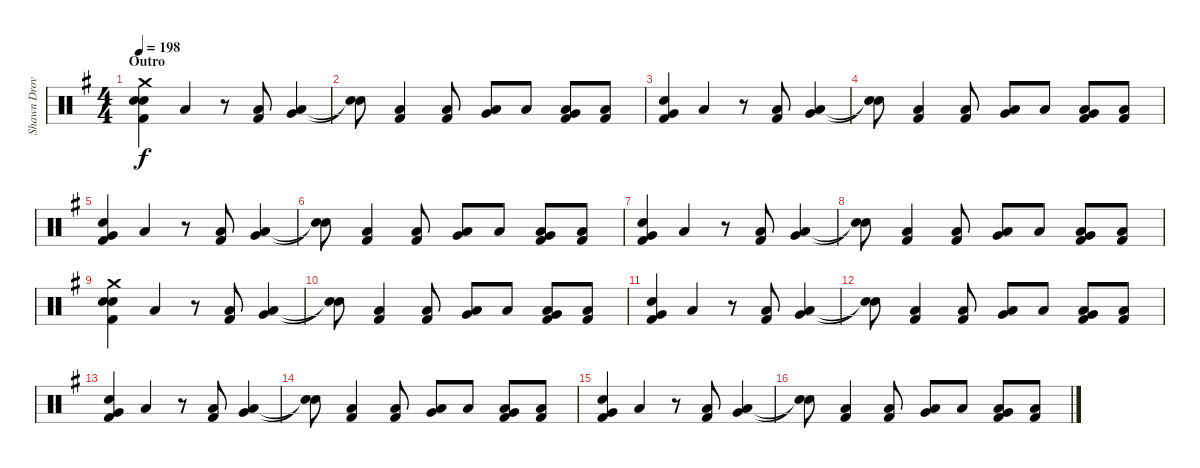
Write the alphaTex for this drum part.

\track ("Shawn Drover" "Shawn Drov") {instrument percussion}
\staff {score}
\articulation defaults
\ts (4 4)
\section ("" "Outro")
\tempo 198
\clef neutral
\ks g
("Crash medium (hit)" "Snare (hit) 2" "Snare (hit) 2" "Kick (hit) 2").4{dy f} "Low Floor Tom (hit)".4 r.8 ("Low Floor Tom (hit)" "Kick (hit) 2").8 ("Low Floor Tom (hit)" "Very Low Tom (hit)").4 |
("Snare (hit)"{t} "Snare (hit)"{t}).8 ("Low Floor Tom (hit)" "Kick (hit) 2").4 ("Low Floor Tom (hit)" "Kick (hit) 2").8 ("Very Low Tom (hit)" "Low Floor Tom (hit)").8 "Low Floor Tom (hit)".8 ("Very Low Tom (hit)" "Low Floor Tom (hit)" "Kick (hit) 2").8 ("Low Tom (hit)" "Kick (hit) 2").8 |
("Snare (hit) 2" "Very Low Tom (hit)" "Kick (hit) 2").4 "Low Floor Tom (hit)".4 r.8 ("Low Floor Tom (hit)" "Kick (hit) 2").8 ("Low Floor Tom (hit)" "Very Low Tom (hit)").4 |
("Snare (hit)"{t} "Snare (hit)"{t}).8 ("Low Floor Tom (hit)" "Kick (hit) 2").4 ("Low Floor Tom (hit)" "Kick (hit) 2").8 ("Very Low Tom (hit)" "Low Floor Tom (hit)").8 "Low Floor Tom (hit)".8 ("Very Low Tom (hit)" "Low Floor Tom (hit)" "Kick (hit) 2").8 ("Low Tom (hit)" "Kick (hit) 2").8 |
("Snare (hit) 2" "Very Low Tom (hit)" "Kick (hit) 2").4 "Low Floor Tom (hit)".4 r.8 ("Low Floor Tom (hit)" "Kick (hit) 2").8 ("Low Floor Tom (hit)" "Very Low Tom (hit)").4 |
("Snare (hit)"{t} "Snare (hit)"{t}).8 ("Low Floor Tom (hit)" "Kick (hit) 2").4 ("Low Floor Tom (hit)" "Kick (hit) 2").8 ("Very Low Tom (hit)" "Low Floor Tom (hit)").8 "Low Floor Tom (hit)".8 ("Very Low Tom (hit)" "Low Floor Tom (hit)" "Kick (hit) 2").8 ("Low Tom (hit)" "Kick (hit) 2").8 |
("Snare (hit) 2" "Very Low Tom (hit)" "Kick (hit) 2").4 "Low Floor Tom (hit)".4 r.8 ("Low Floor Tom (hit)" "Kick (hit) 2").8 ("Low Floor Tom (hit)" "Very Low Tom (hit)").4 |
("Snare (hit)"{t} "Snare (hit)"{t}).8 ("Low Floor Tom (hit)" "Kick (hit) 2").4 ("Low Floor Tom (hit)" "Kick (hit) 2").8 ("Very Low Tom (hit)" "Low Floor Tom (hit)").8 "Low Floor Tom (hit)".8 ("Very Low Tom (hit)" "Low Floor Tom (hit)" "Kick (hit) 2").8 ("Low Tom (hit)" "Kick (hit) 2").8 |
("Crash medium (hit)" "Snare (hit) 2" "Snare (hit) 2" "Kick (hit) 2").4 "Low Floor Tom (hit)".4 r.8 ("Low Floor Tom (hit)" "Kick (hit) 2").8 ("Low Floor Tom (hit)" "Very Low Tom (hit)").4 |
("Snare (hit)"{t} "Snare (hit)"{t}).8 ("Low Floor Tom (hit)" "Kick (hit) 2").4 ("Low Floor Tom (hit)" "Kick (hit) 2").8 ("Very Low Tom (hit)" "Low Floor Tom (hit)").8 "Low Floor Tom (hit)".8 ("Very Low Tom (hit)" "Low Floor Tom (hit)" "Kick (hit) 2").8 ("Low Tom (hit)" "Kick (hit) 2").8 |
("Snare (hit) 2" "Very Low Tom (hit)" "Kick (hit) 2").4 "Low Floor Tom (hit)".4 r.8 ("Low Floor Tom (hit)" "Kick (hit) 2").8 ("Low Floor Tom (hit)" "Very Low Tom (hit)").4 |
("Snare (hit)"{t} "Snare (hit)"{t}).8 ("Low Floor Tom (hit)" "Kick (hit) 2").4 ("Low Floor Tom (hit)" "Kick (hit) 2").8 ("Very Low Tom (hit)" "Low Floor Tom (hit)").8 "Low Floor Tom (hit)".8 ("Very Low Tom (hit)" "Low Floor Tom (hit)" "Kick (hit) 2").8 ("Low Tom (hit)" "Kick (hit) 2").8 |
("Snare (hit) 2" "Very Low Tom (hit)" "Kick (hit) 2").4 "Low Floor Tom (hit)".4 r.8 ("Low Floor Tom (hit)" "Kick (hit) 2").8 ("Low Floor Tom (hit)" "Very Low Tom (hit)").4 |
("Snare (hit)"{t} "Snare (hit)"{t}).8 ("Low Floor Tom (hit)" "Kick (hit) 2").4 ("Low Floor Tom (hit)" "Kick (hit) 2").8 ("Very Low Tom (hit)" "Low Floor Tom (hit)").8 "Low Floor Tom (hit)".8 ("Very Low Tom (hit)" "Low Floor Tom (hit)" "Kick (hit) 2").8 ("Low Tom (hit)" "Kick (hit) 2").8 |
("Snare (hit) 2" "Very Low Tom (hit)" "Kick (hit) 2").4 "Low Floor Tom (hit)".4 r.8 ("Low Floor Tom (hit)" "Kick (hit) 2").8 ("Low Floor Tom (hit)" "Very Low Tom (hit)").4 |
("Snare (hit)"{t} "Snare (hit)"{t}).8 ("Low Floor Tom (hit)" "Kick (hit) 2").4 ("Low Floor Tom (hit)" "Kick (hit) 2").8 ("Very Low Tom (hit)" "Low Floor Tom (hit)").8 "Low Floor Tom (hit)".8 ("Very Low Tom (hit)" "Low Floor Tom (hit)" "Kick (hit) 2").8 ("Low Tom (hit)" "Kick (hit) 2").8
